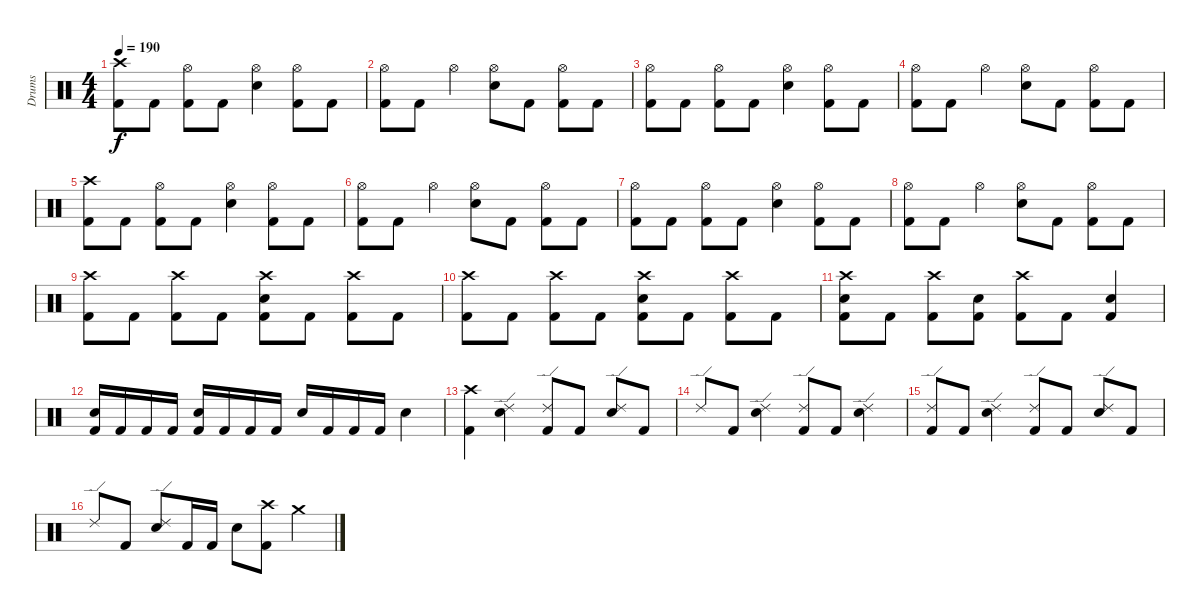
\track ("Drums" "Drums") {instrument percussion}
\staff {score}
\articulation defaults
\ts (4 4)
\tempo 190
\clef neutral
\ks c
("Crash high (hit)" "Kick (hit) 2").8{dy f} "Kick (hit) 2".8 ("Hi-Hat (open)" "Kick (hit) 2").8 "Kick (hit) 2".8 ("Hi-Hat (open)" "Snare (hit) 2").4 ("Hi-Hat (open)" "Kick (hit) 2").8 "Kick (hit) 2".8 |
("Hi-Hat (open)" "Kick (hit) 2").8 "Kick (hit) 2".8 "Hi-Hat (open)".4 ("Hi-Hat (open)" "Snare (hit) 2").8 "Kick (hit) 2".8 ("Hi-Hat (open)" "Kick (hit) 2").8 "Kick (hit) 2".8 |
("Hi-Hat (open)" "Kick (hit) 2").8 "Kick (hit) 2".8 ("Hi-Hat (open)" "Kick (hit) 2").8 "Kick (hit) 2".8 ("Hi-Hat (open)" "Snare (hit) 2").4 ("Hi-Hat (open)" "Kick (hit) 2").8 "Kick (hit) 2".8 |
("Hi-Hat (open)" "Kick (hit) 2").8 "Kick (hit) 2".8 "Hi-Hat (open)".4 ("Hi-Hat (open)" "Snare (hit) 2").8 "Kick (hit) 2".8 ("Hi-Hat (open)" "Kick (hit) 2").8 "Kick (hit) 2".8 |
("Crash high (hit)" "Kick (hit) 2").8 "Kick (hit) 2".8 ("Hi-Hat (open)" "Kick (hit) 2").8 "Kick (hit) 2".8 ("Hi-Hat (open)" "Snare (hit) 2").4 ("Hi-Hat (open)" "Kick (hit) 2").8 "Kick (hit) 2".8 |
("Hi-Hat (open)" "Kick (hit) 2").8 "Kick (hit) 2".8 "Hi-Hat (open)".4 ("Hi-Hat (open)" "Snare (hit) 2").8 "Kick (hit) 2".8 ("Hi-Hat (open)" "Kick (hit) 2").8 "Kick (hit) 2".8 |
("Hi-Hat (open)" "Kick (hit) 2").8 "Kick (hit) 2".8 ("Hi-Hat (open)" "Kick (hit) 2").8 "Kick (hit) 2".8 ("Hi-Hat (open)" "Snare (hit) 2").4 ("Hi-Hat (open)" "Kick (hit) 2").8 "Kick (hit) 2".8 |
("Hi-Hat (open)" "Kick (hit) 2").8 "Kick (hit) 2".8 "Hi-Hat (open)".4 ("Hi-Hat (open)" "Snare (hit) 2").8 "Kick (hit) 2".8 ("Hi-Hat (open)" "Kick (hit) 2").8 "Kick (hit) 2".8 |
("Crash high (hit)" "Kick (hit) 2").8 "Kick (hit) 2".8 ("Crash high (hit)" "Kick (hit) 2").8 "Kick (hit) 2".8 ("Crash high (hit)" "Snare (hit) 2" "Kick (hit) 2").8 "Kick (hit) 2".8 ("Crash high (hit)" "Kick (hit) 2").8 "Kick (hit) 2".8 |
("Crash high (hit)" "Kick (hit) 2").8 "Kick (hit) 2".8 ("Crash high (hit)" "Kick (hit) 2").8 "Kick (hit) 2".8 ("Crash high (hit)" "Snare (hit) 2" "Kick (hit) 2").8 "Kick (hit) 2".8 ("Crash high (hit)" "Kick (hit) 2").8 "Kick (hit) 2".8 |
("Crash high (hit)" "Snare (hit) 2" "Kick (hit) 2").8 "Kick (hit) 2".8 ("Crash high (hit)" "Kick (hit) 2").8 ("Snare (hit) 2" "Kick (hit) 2").8 ("Crash high (hit)" "Kick (hit) 2").8 "Kick (hit) 2".8 ("Snare (hit) 2" "Kick (hit) 2").4 |
("Snare (hit) 2" "Kick (hit) 2").16 "Kick (hit) 2".16 "Kick (hit) 2".16 "Kick (hit) 2".16 ("Snare (hit) 2" "Kick (hit) 2").16 "Kick (hit) 2".16 "Kick (hit) 2".16 "Kick (hit) 2".16 "Snare (hit) 2".16 "Kick (hit) 2".16 "Kick (hit) 2".16 "Kick (hit) 2".16 "Snare (hit) 2".4 |
("Crash high (hit)" "Kick (hit) 2").4 ("Ride (edge) 2" "Snare (hit) 2").4 ("Ride (edge) 2" "Kick (hit) 2").8 "Kick (hit) 2".8 ("Ride (edge) 2" "Snare (hit) 2").8 "Kick (hit) 2".8 |
"Ride (edge) 2".8 "Kick (hit) 2".8 ("Ride (edge) 2" "Snare (hit) 2").4 ("Ride (edge) 2" "Kick (hit) 2").8 "Kick (hit) 2".8 ("Ride (edge) 2" "Snare (hit) 2").4 |
("Ride (edge) 2" "Kick (hit) 2").8 "Kick (hit) 2".8 ("Ride (edge) 2" "Snare (hit) 2").4 ("Ride (edge) 2" "Kick (hit) 2").8 "Kick (hit) 2".8 ("Ride (edge) 2" "Snare (hit) 2").8 "Kick (hit) 2".8 |
"Ride (edge) 2".8 "Kick (hit) 2".8 ("Ride (edge) 2" "Snare (hit) 2").8 "Kick (hit) 2".16 "Kick (hit) 2".16 "Snare (hit) 2".8 ("Crash high (hit)" "Kick (hit) 2").8 "Crash medium (hit)".4
